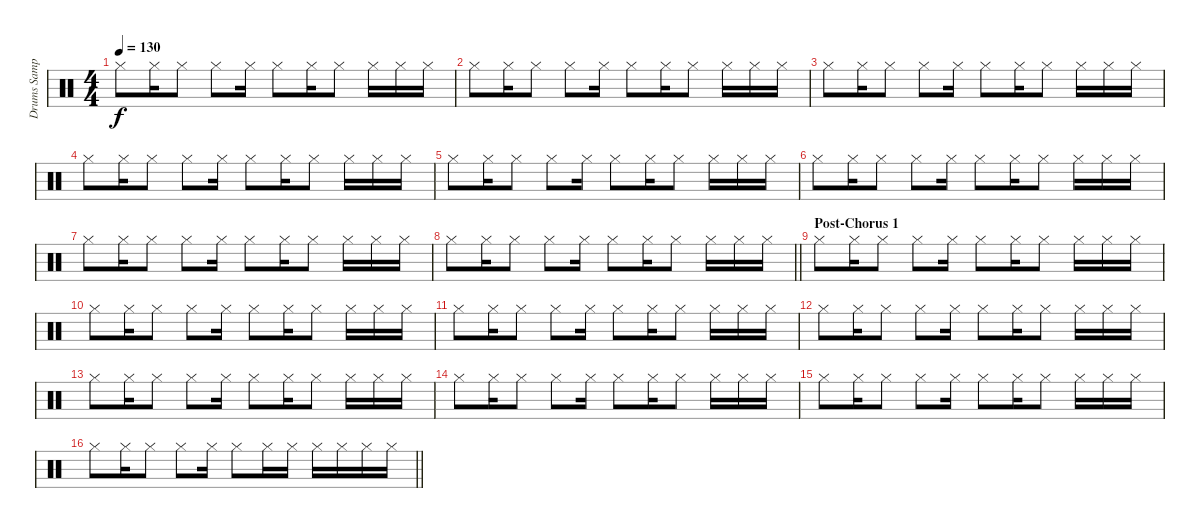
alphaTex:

\track ("Drums Sample" "Drums Samp") {instrument percussion}
\staff {score}
\articulation defaults
\ts (4 4)
\tempo 130
\clef neutral
\ks c "Hi-Hat (closed)".8{dy f} "Hi-Hat (closed)".16 "Hi-Hat (closed)".8 "Hi-Hat (closed)".8 "Hi-Hat (closed)".16 "Hi-Hat (closed)".8 "Hi-Hat (closed)".16 "Hi-Hat (closed)".8 "Hi-Hat (closed)".16 "Hi-Hat (closed)".16 "Hi-Hat (closed)".16
|
"Hi-Hat (closed)".8 "Hi-Hat (closed)".16 "Hi-Hat (closed)".8 "Hi-Hat (closed)".8 "Hi-Hat (closed)".16 "Hi-Hat (closed)".8 "Hi-Hat (closed)".16 "Hi-Hat (closed)".8 "Hi-Hat (closed)".16 "Hi-Hat (closed)".16 "Hi-Hat (closed)".16 |
"Hi-Hat (closed)".8 "Hi-Hat (closed)".16 "Hi-Hat (closed)".8 "Hi-Hat (closed)".8 "Hi-Hat (closed)".16 "Hi-Hat (closed)".8 "Hi-Hat (closed)".16 "Hi-Hat (closed)".8 "Hi-Hat (closed)".16 "Hi-Hat (closed)".16 "Hi-Hat (closed)".16 |
"Hi-Hat (closed)".8 "Hi-Hat (closed)".16 "Hi-Hat (closed)".8 "Hi-Hat (closed)".8 "Hi-Hat (closed)".16 "Hi-Hat (closed)".8 "Hi-Hat (closed)".16 "Hi-Hat (closed)".8 "Hi-Hat (closed)".16 "Hi-Hat (closed)".16 "Hi-Hat (closed)".16 |
"Hi-Hat (closed)".8 "Hi-Hat (closed)".16 "Hi-Hat (closed)".8 "Hi-Hat (closed)".8 "Hi-Hat (closed)".16 "Hi-Hat (closed)".8 "Hi-Hat (closed)".16 "Hi-Hat (closed)".8 "Hi-Hat (closed)".16 "Hi-Hat (closed)".16 "Hi-Hat (closed)".16 |
"Hi-Hat (closed)".8 "Hi-Hat (closed)".16 "Hi-Hat (closed)".8 "Hi-Hat (closed)".8 "Hi-Hat (closed)".16 "Hi-Hat (closed)".8 "Hi-Hat (closed)".16 "Hi-Hat (closed)".8 "Hi-Hat (closed)".16 "Hi-Hat (closed)".16 "Hi-Hat (closed)".16 |
"Hi-Hat (closed)".8 "Hi-Hat (closed)".16 "Hi-Hat (closed)".8 "Hi-Hat (closed)".8 "Hi-Hat (closed)".16 "Hi-Hat (closed)".8 "Hi-Hat (closed)".16 "Hi-Hat (closed)".8 "Hi-Hat (closed)".16 "Hi-Hat (closed)".16 "Hi-Hat (closed)".16 |
\barLineRight lightlight "Hi-Hat (closed)".8 "Hi-Hat (closed)".16 "Hi-Hat (closed)".8 "Hi-Hat (closed)".8 "Hi-Hat (closed)".16 "Hi-Hat (closed)".8 "Hi-Hat (closed)".16 "Hi-Hat (closed)".8 "Hi-Hat (closed)".16 "Hi-Hat (closed)".16 "Hi-Hat (closed)".16
|
\section ("" "Post-Chorus 1")
"Hi-Hat (closed)".8 "Hi-Hat (closed)".16 "Hi-Hat (closed)".8 "Hi-Hat (closed)".8 "Hi-Hat (closed)".16 "Hi-Hat (closed)".8 "Hi-Hat (closed)".16 "Hi-Hat (closed)".8 "Hi-Hat (closed)".16 "Hi-Hat (closed)".16 "Hi-Hat (closed)".16 |
"Hi-Hat (closed)".8 "Hi-Hat (closed)".16 "Hi-Hat (closed)".8 "Hi-Hat (closed)".8 "Hi-Hat (closed)".16 "Hi-Hat (closed)".8 "Hi-Hat (closed)".16 "Hi-Hat (closed)".8 "Hi-Hat (closed)".16 "Hi-Hat (closed)".16 "Hi-Hat (closed)".16 |
"Hi-Hat (closed)".8 "Hi-Hat (closed)".16 "Hi-Hat (closed)".8 "Hi-Hat (closed)".8 "Hi-Hat (closed)".16 "Hi-Hat (closed)".8 "Hi-Hat (closed)".16 "Hi-Hat (closed)".8 "Hi-Hat (closed)".16 "Hi-Hat (closed)".16 "Hi-Hat (closed)".16 |
"Hi-Hat (closed)".8 "Hi-Hat (closed)".16 "Hi-Hat (closed)".8 "Hi-Hat (closed)".8 "Hi-Hat (closed)".16 "Hi-Hat (closed)".8 "Hi-Hat (closed)".16 "Hi-Hat (closed)".8 "Hi-Hat (closed)".16 "Hi-Hat (closed)".16 "Hi-Hat (closed)".16 |
"Hi-Hat (closed)".8 "Hi-Hat (closed)".16 "Hi-Hat (closed)".8 "Hi-Hat (closed)".8 "Hi-Hat (closed)".16 "Hi-Hat (closed)".8 "Hi-Hat (closed)".16 "Hi-Hat (closed)".8 "Hi-Hat (closed)".16 "Hi-Hat (closed)".16 "Hi-Hat (closed)".16 |
"Hi-Hat (closed)".8 "Hi-Hat (closed)".16 "Hi-Hat (closed)".8 "Hi-Hat (closed)".8 "Hi-Hat (closed)".16 "Hi-Hat (closed)".8 "Hi-Hat (closed)".16 "Hi-Hat (closed)".8 "Hi-Hat (closed)".16 "Hi-Hat (closed)".16 "Hi-Hat (closed)".16 |
"Hi-Hat (closed)".8 "Hi-Hat (closed)".16 "Hi-Hat (closed)".8 "Hi-Hat (closed)".8 "Hi-Hat (closed)".16 "Hi-Hat (closed)".8 "Hi-Hat (closed)".16 "Hi-Hat (closed)".8 "Hi-Hat (closed)".16 "Hi-Hat (closed)".16 "Hi-Hat (closed)".16 |
\barLineRight lightlight "Hi-Hat (closed)".8 "Hi-Hat (closed)".16 "Hi-Hat (closed)".8 "Hi-Hat (closed)".8 "Hi-Hat (closed)".16 "Hi-Hat (closed)".8 "Hi-Hat (closed)".16 "Hi-Hat (closed)".16 "Hi-Hat (closed)".16 "Hi-Hat (closed)".16 "Hi-Hat (closed)".16 "Hi-Hat (closed)".16
